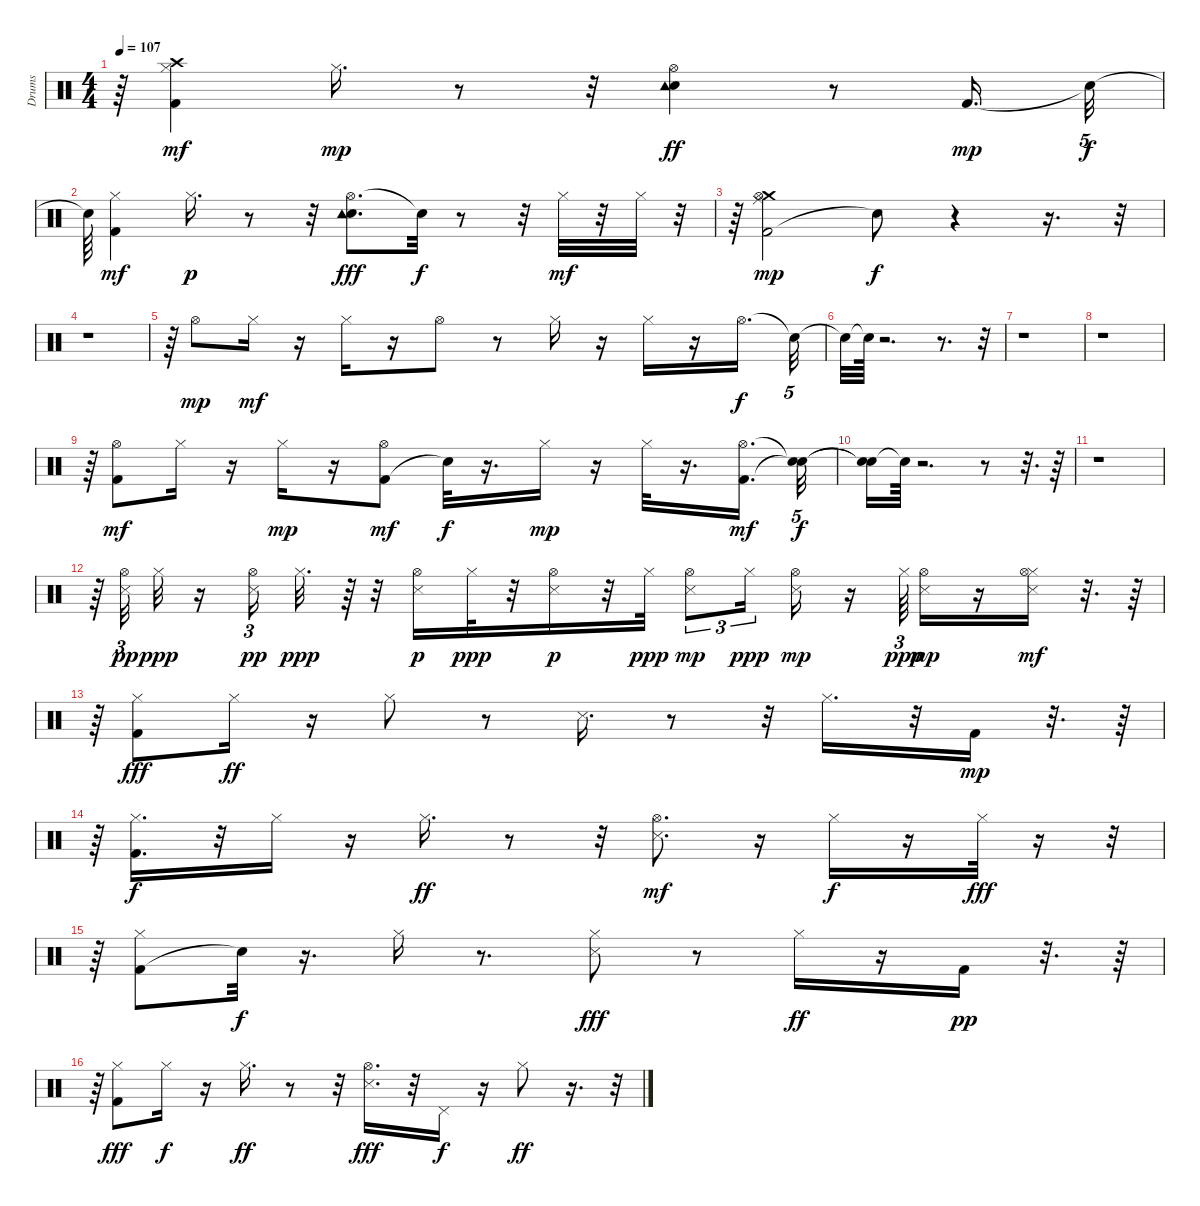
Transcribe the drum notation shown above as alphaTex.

\track ("Drums" "Drums") {instrument percussion}
\staff {score}
\articulation defaults
\ts (4 4)
\tempo 107
\clef neutral
\ks c
r.64{dy mp} ("Kick (hit) 2" "Hi-Hat (closed)" "Crash high (hit)").4{dy mf} "Hi-Hat (closed)".16{d dy mp} r.8 r.32 ("Hi-Hat (open)" "Electric Snare (hit)" "Tambourine (hit)").4{dy ff} r.8 "Kick (hit) 2".16{d dy mp} "Snare (hit)"{t}.32{tu (5 4) dy f} |
"Snare (hit)"{t}.64 ("Kick (hit) 2" "Hi-Hat (closed)").4{dy mf} "Hi-Hat (closed)".16{d dy p} r.8 r.32 ("Hi-Hat (open)" "Electric Snare (hit)" "Tambourine (hit)").8{d dy fff} "Snare (hit)"{t}.32{dy f} r.8 r.32 "Hi-Hat (closed)".32{dy mf} r.32 "Hi-Hat (closed)".32 r.32{tu (5 4)} |
r.64 ("Kick (hit) 2" "Crash medium (hit)" "Ride (middle)" "Hi-Hat (open)").2{dy mp} "Snare (hit)"{t}.8{dy f} r.4 r.16{d} r.32{tu (5 4)} |
r.1 |
r.64 "Hi-Hat (open)".8{dy mp} "Hi-Hat (closed)".16{dy mf} r.16 "Hi-Hat (closed)".16 r.16 "Hi-Hat (open)".8 r.8 "Hi-Hat (closed)".16 r.16 "Hi-Hat (closed)".16 r.16 "Hi-Hat (open)".16{d dy f} "Snare (hit)"{t}.32{tu (5 4)} |
"Snare (hit)"{t}.32 "Snare (hit)"{t}.64 r.2{d} r.8{d} r.32{tu (5 4)} |
r.1 |
r.1 |
r.64 ("Kick (hit) 2" "Hi-Hat (open)").8{dy mf} "Hi-Hat (closed)".16 r.16 "Hi-Hat (closed)".16{dy mp} r.16 ("Kick (hit) 2" "Hi-Hat (open)").8{dy mf} "Snare (hit)"{t}.32{dy f} r.16{d} "Hi-Hat (closed)".16{dy mp} r.16 "Hi-Hat (closed)".32 r.16{d} ("Kick (hit) 2" "Hi-Hat (open)").16{d dy mf} ("Snare (hit)"{t} "Snare (hit)"{t}).32{tu (5 4) dy f} |
("Snare (hit)"{t} "Snare (hit)"{t}).16 "Snare (hit)"{t}.64 r.2{d} r.8 r.32{d} r.64 |
r.1 |
r.64 ("Snare (side stick) 3" "Hi-Hat (open)").32{tu (3 2) dy pp} "Hi-Hat (closed)".32{dy ppp} r.16 ("Snare (side stick) 3" "Hi-Hat (open)").16{tu (3 2) dy pp} "Hi-Hat (closed)".32{d dy ppp} r.64 r.32 ("Snare (side stick) 3" "Hi-Hat (open)").16{dy p} "Hi-Hat (closed)".32{dy ppp} r.32 ("Snare (side stick) 3" "Hi-Hat (open)").16{dy p} r.32 "Hi-Hat (closed)".32{dy ppp} ("Snare (side stick) 3" "Hi-Hat (open)").8{tu (3 2) dy mp} "Hi-Hat (closed)".16{tu (3 2) dy ppp} ("Snare (side stick) 3" "Hi-Hat (open)").16{dy mp} r.16 "Hi-Hat (closed)".64{tu (3 2) dy ppp} ("Snare (side stick) 3" "Hi-Hat (open)").16{dy mp} r.16 ("Hi-Hat (closed)" "Snare (side stick) 3" "Hi-Hat (open)").16{dy mf} r.32{d} r.64 |
r.64 ("Hi-Hat (closed)" "Kick (hit) 2").8{dy fff} "Hi-Hat (closed)".16{dy ff} r.16 "Hi-Hat (closed)".8 r.8 "Snare (side stick) 3".16{d} r.8 r.32 "Hi-Hat (closed)".16{d} r.32 "Kick (hit) 2".16{dy mp} r.32{d} r.64 |
r.64 ("Hi-Hat (closed)" "Kick (hit) 2").16{d dy f} r.32 "Hi-Hat (closed)".16 r.16 "Hi-Hat (closed)".16{d dy ff} r.8 r.32 ("Hi-Hat (open)" "Snare (side stick) 3").8{d dy mf} r.16 "Hi-Hat (closed)".16{dy f} r.16 "Hi-Hat (closed)".32{dy fff} r.16 r.32{tu (5 4)} |
r.64 ("Kick (hit) 2" "Hi-Hat (closed)").8 "Snare (hit)"{t}.32{dy f} r.16{d} "Hi-Hat (closed)".16 r.8{d} ("Snare (side stick) 3" "Hi-Hat (closed)").8{dy fff} r.8 "Hi-Hat (closed)".16{dy ff} r.16 "Kick (hit) 2".16{dy pp} r.32{d} r.64 |
r.64 ("Kick (hit) 2" "Hi-Hat (closed)").8{dy fff} "Hi-Hat (closed)".16{dy f} r.16 "Hi-Hat (closed)".16{d dy ff} r.8 r.32 ("Snare (side stick) 3" "Hi-Hat (open)").16{d dy fff} r.32 "Pedal Hi-Hat (hit)".16{dy f} r.16 "Hi-Hat (closed)".8{dy ff} r.16{d} r.32{tu (5 4)}
